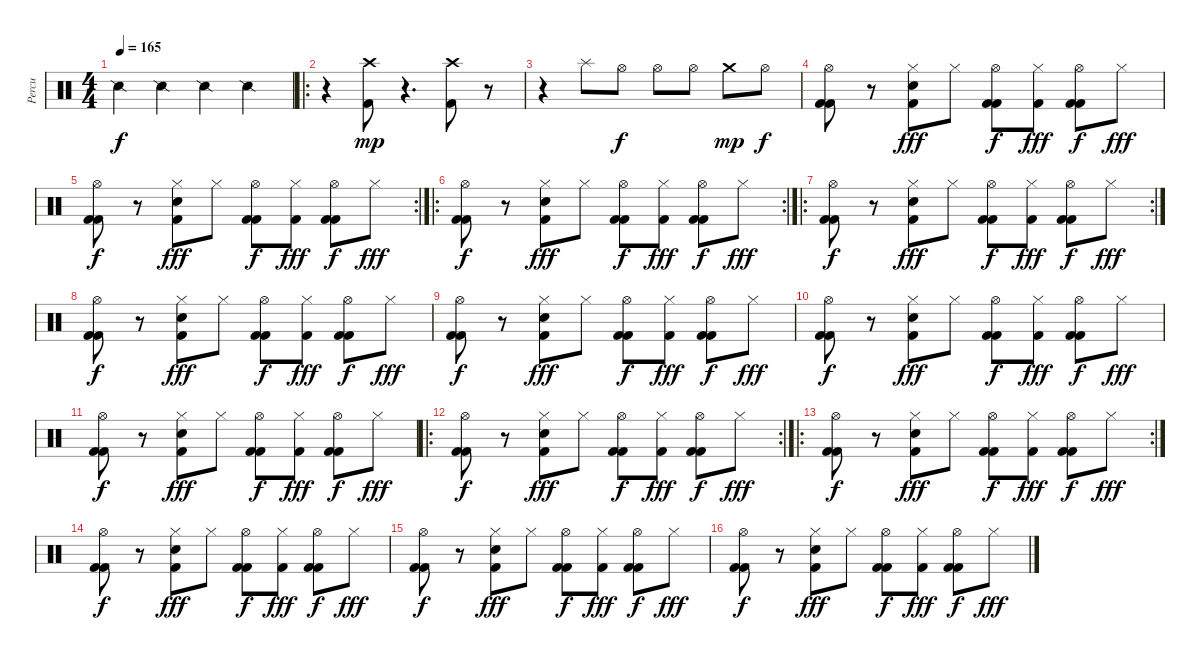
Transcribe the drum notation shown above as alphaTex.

\track ("Percu" "Percu") {instrument percussion}
\staff {score}
\articulation defaults
\ts (4 4)
\tempo 165
\clef neutral
\ks c "Snare (side stick) 2".4{dy f} "Snare (side stick) 2".4 "Snare (side stick) 2".4 "Snare (side stick) 2".4
|
\ro
r.4 ("Crash high (hit)" "Kick (hit) 2").8{dy mp} r.4{d} ("Crash high (hit)" "Kick (hit) 2").8 r.8 |
r.4 "Splash (hit)".8 "Hi-Hat (open)".8{dy f} "Hi-Hat (open)".8 "Hi-Hat (open)".8 "Crash medium (hit)".8{dy mp} "Hi-Hat (open)".8{dy f} |
("Kick (hit) 2" "Hi-Hat (open)" "Kick (hit) 2").8 r.8 ("Hi-Hat (closed)" "Kick (hit) 2" "Snare (hit) 2").8{dy fff} "Hi-Hat (closed)".8 ("Kick (hit) 2" "Hi-Hat (open)" "Kick (hit) 2").8{dy f} ("Hi-Hat (closed)" "Kick (hit) 2").8{dy fff} ("Kick (hit) 2" "Hi-Hat (open)" "Kick (hit) 2").8{dy f} "Hi-Hat (closed)".8{dy fff} |
\rc 2
("Kick (hit) 2" "Hi-Hat (open)" "Kick (hit) 2").8{dy f} r.8 ("Hi-Hat (closed)" "Kick (hit) 2" "Snare (hit) 2").8{dy fff} "Hi-Hat (closed)".8 ("Kick (hit) 2" "Hi-Hat (open)" "Kick (hit) 2").8{dy f} ("Hi-Hat (closed)" "Kick (hit) 2").8{dy fff} ("Kick (hit) 2" "Hi-Hat (open)" "Kick (hit) 2").8{dy f} "Hi-Hat (closed)".8{dy fff} |
\ro
\rc 2
("Kick (hit) 2" "Hi-Hat (open)" "Kick (hit) 2").8{dy f} r.8 ("Hi-Hat (closed)" "Kick (hit) 2" "Snare (hit) 2").8{dy fff} "Hi-Hat (closed)".8 ("Kick (hit) 2" "Hi-Hat (open)" "Kick (hit) 2").8{dy f} ("Hi-Hat (closed)" "Kick (hit) 2").8{dy fff} ("Kick (hit) 2" "Hi-Hat (open)" "Kick (hit) 2").8{dy f} "Hi-Hat (closed)".8{dy fff} |
\ro
\rc 2
("Kick (hit) 2" "Hi-Hat (open)" "Kick (hit) 2").8{dy f} r.8 ("Hi-Hat (closed)" "Kick (hit) 2" "Snare (hit) 2").8{dy fff} "Hi-Hat (closed)".8 ("Kick (hit) 2" "Hi-Hat (open)" "Kick (hit) 2").8{dy f} ("Hi-Hat (closed)" "Kick (hit) 2").8{dy fff} ("Kick (hit) 2" "Hi-Hat (open)" "Kick (hit) 2").8{dy f} "Hi-Hat (closed)".8{dy fff} |
("Kick (hit) 2" "Hi-Hat (open)" "Kick (hit) 2").8{dy f} r.8 ("Hi-Hat (closed)" "Kick (hit) 2" "Snare (hit) 2").8{dy fff} "Hi-Hat (closed)".8 ("Kick (hit) 2" "Hi-Hat (open)" "Kick (hit) 2").8{dy f} ("Hi-Hat (closed)" "Kick (hit) 2").8{dy fff} ("Kick (hit) 2" "Hi-Hat (open)" "Kick (hit) 2").8{dy f} "Hi-Hat (closed)".8{dy fff} |
("Kick (hit) 2" "Hi-Hat (open)" "Kick (hit) 2").8{dy f} r.8 ("Hi-Hat (closed)" "Kick (hit) 2" "Snare (hit) 2").8{dy fff} "Hi-Hat (closed)".8 ("Kick (hit) 2" "Hi-Hat (open)" "Kick (hit) 2").8{dy f} ("Hi-Hat (closed)" "Kick (hit) 2").8{dy fff} ("Kick (hit) 2" "Hi-Hat (open)" "Kick (hit) 2").8{dy f} "Hi-Hat (closed)".8{dy fff} |
("Kick (hit) 2" "Hi-Hat (open)" "Kick (hit) 2").8{dy f} r.8 ("Hi-Hat (closed)" "Kick (hit) 2" "Snare (hit) 2").8{dy fff} "Hi-Hat (closed)".8 ("Kick (hit) 2" "Hi-Hat (open)" "Kick (hit) 2").8{dy f} ("Hi-Hat (closed)" "Kick (hit) 2").8{dy fff} ("Kick (hit) 2" "Hi-Hat (open)" "Kick (hit) 2").8{dy f} "Hi-Hat (closed)".8{dy fff} |
("Kick (hit) 2" "Hi-Hat (open)" "Kick (hit) 2").8{dy f} r.8 ("Hi-Hat (closed)" "Kick (hit) 2" "Snare (hit) 2").8{dy fff} "Hi-Hat (closed)".8 ("Kick (hit) 2" "Hi-Hat (open)" "Kick (hit) 2").8{dy f} ("Hi-Hat (closed)" "Kick (hit) 2").8{dy fff} ("Kick (hit) 2" "Hi-Hat (open)" "Kick (hit) 2").8{dy f} "Hi-Hat (closed)".8{dy fff} |
\ro
\rc 2
("Kick (hit) 2" "Hi-Hat (open)" "Kick (hit) 2").8{dy f} r.8 ("Hi-Hat (closed)" "Kick (hit) 2" "Snare (hit) 2").8{dy fff} "Hi-Hat (closed)".8 ("Kick (hit) 2" "Hi-Hat (open)" "Kick (hit) 2").8{dy f} ("Hi-Hat (closed)" "Kick (hit) 2").8{dy fff} ("Kick (hit) 2" "Hi-Hat (open)" "Kick (hit) 2").8{dy f} "Hi-Hat (closed)".8{dy fff} |
\ro
\rc 2
("Kick (hit) 2" "Hi-Hat (open)" "Kick (hit) 2").8{dy f} r.8 ("Hi-Hat (closed)" "Kick (hit) 2" "Snare (hit) 2").8{dy fff} "Hi-Hat (closed)".8 ("Kick (hit) 2" "Hi-Hat (open)" "Kick (hit) 2").8{dy f} ("Hi-Hat (closed)" "Kick (hit) 2").8{dy fff} ("Kick (hit) 2" "Hi-Hat (open)" "Kick (hit) 2").8{dy f} "Hi-Hat (closed)".8{dy fff} |
("Kick (hit) 2" "Hi-Hat (open)" "Kick (hit) 2").8{dy f} r.8 ("Hi-Hat (closed)" "Kick (hit) 2" "Snare (hit) 2").8{dy fff} "Hi-Hat (closed)".8 ("Kick (hit) 2" "Hi-Hat (open)" "Kick (hit) 2").8{dy f} ("Hi-Hat (closed)" "Kick (hit) 2").8{dy fff} ("Kick (hit) 2" "Hi-Hat (open)" "Kick (hit) 2").8{dy f} "Hi-Hat (closed)".8{dy fff} |
("Kick (hit) 2" "Hi-Hat (open)" "Kick (hit) 2").8{dy f} r.8 ("Hi-Hat (closed)" "Kick (hit) 2" "Snare (hit) 2").8{dy fff} "Hi-Hat (closed)".8 ("Kick (hit) 2" "Hi-Hat (open)" "Kick (hit) 2").8{dy f} ("Hi-Hat (closed)" "Kick (hit) 2").8{dy fff} ("Kick (hit) 2" "Hi-Hat (open)" "Kick (hit) 2").8{dy f} "Hi-Hat (closed)".8{dy fff} |
("Kick (hit) 2" "Hi-Hat (open)" "Kick (hit) 2").8{dy f} r.8 ("Hi-Hat (closed)" "Kick (hit) 2" "Snare (hit) 2").8{dy fff} "Hi-Hat (closed)".8 ("Kick (hit) 2" "Hi-Hat (open)" "Kick (hit) 2").8{dy f} ("Hi-Hat (closed)" "Kick (hit) 2").8{dy fff} ("Kick (hit) 2" "Hi-Hat (open)" "Kick (hit) 2").8{dy f} "Hi-Hat (closed)".8{dy fff}
